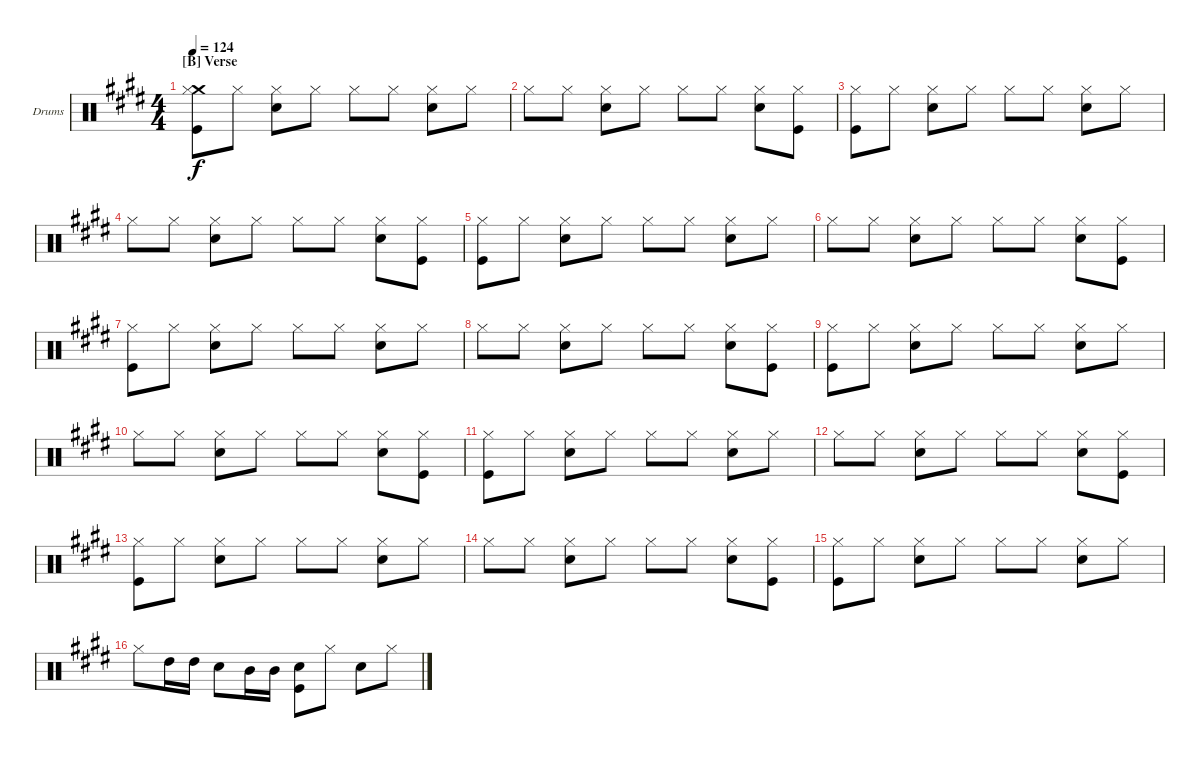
\defaultSystemsLayout 4
\bracketExtendMode groupsimilarinstruments
\firstSystemTrackNameOrientation horizontal
\otherSystemsTrackNameOrientation horizontal
\track ("Drumkit" "Drums") {instrument percussion}
\staff {score}
\articulation defaults
\ts (4 4)
\section ("B" "Verse")
\tempo 124
\clef neutral
\scale
1.06557
\ks e
("Crash medium (hit)" "Hi-Hat (closed)" "Kick (hit)").8{dy f} "Hi-Hat (closed)".8 ("Hi-Hat (closed)" "Snare (hit) 2").8 "Hi-Hat (closed)".8 "Hi-Hat (closed)".8 "Hi-Hat (closed)".8 ("Hi-Hat (closed)" "Snare (hit) 2").8 "Hi-Hat (closed)".8 |
\scale
0.934426 "Hi-Hat (closed)".8 "Hi-Hat (closed)".8 ("Hi-Hat (closed)" "Snare (hit) 2").8 "Hi-Hat (closed)".8 "Hi-Hat (closed)".8 "Hi-Hat (closed)".8 ("Hi-Hat (closed)" "Snare (hit) 2").8 ("Hi-Hat (closed)" "Kick (hit)").8 |
\scale
1.06557 ("Hi-Hat (closed)" "Kick (hit)").8 "Hi-Hat (closed)".8 ("Hi-Hat (closed)" "Snare (hit) 2").8 "Hi-Hat (closed)".8 "Hi-Hat (closed)".8 "Hi-Hat (closed)".8 ("Hi-Hat (closed)" "Snare (hit) 2").8 "Hi-Hat (closed)".8 |
\scale
0.934426 "Hi-Hat (closed)".8 "Hi-Hat (closed)".8 ("Hi-Hat (closed)" "Snare (hit) 2").8 "Hi-Hat (closed)".8 "Hi-Hat (closed)".8 "Hi-Hat (closed)".8 ("Hi-Hat (closed)" "Snare (hit) 2").8 ("Hi-Hat (closed)" "Kick (hit)").8 |
\scale
1.06557 ("Hi-Hat (closed)" "Kick (hit)").8 "Hi-Hat (closed)".8 ("Hi-Hat (closed)" "Snare (hit) 2").8 "Hi-Hat (closed)".8 "Hi-Hat (closed)".8 "Hi-Hat (closed)".8 ("Hi-Hat (closed)" "Snare (hit) 2").8 "Hi-Hat (closed)".8 |
\scale
0.934426 "Hi-Hat (closed)".8 "Hi-Hat (closed)".8 ("Hi-Hat (closed)" "Snare (hit) 2").8 "Hi-Hat (closed)".8 "Hi-Hat (closed)".8 "Hi-Hat (closed)".8 ("Hi-Hat (closed)" "Snare (hit) 2").8 ("Hi-Hat (closed)" "Kick (hit)").8 |
\scale
1.06557 ("Hi-Hat (closed)" "Kick (hit)").8 "Hi-Hat (closed)".8 ("Hi-Hat (closed)" "Snare (hit) 2").8 "Hi-Hat (closed)".8 "Hi-Hat (closed)".8 "Hi-Hat (closed)".8 ("Hi-Hat (closed)" "Snare (hit) 2").8 "Hi-Hat (closed)".8 |
\scale
0.934426 "Hi-Hat (closed)".8 "Hi-Hat (closed)".8 ("Hi-Hat (closed)" "Snare (hit) 2").8 "Hi-Hat (closed)".8 "Hi-Hat (closed)".8 "Hi-Hat (closed)".8 ("Hi-Hat (closed)" "Snare (hit) 2").8 ("Hi-Hat (closed)" "Kick (hit)").8 |
\scale
1.06557 ("Hi-Hat (closed)" "Kick (hit)").8 "Hi-Hat (closed)".8 ("Hi-Hat (closed)" "Snare (hit) 2").8 "Hi-Hat (closed)".8 "Hi-Hat (closed)".8 "Hi-Hat (closed)".8 ("Hi-Hat (closed)" "Snare (hit) 2").8 "Hi-Hat (closed)".8 |
\scale
0.934426 "Hi-Hat (closed)".8 "Hi-Hat (closed)".8 ("Hi-Hat (closed)" "Snare (hit) 2").8 "Hi-Hat (closed)".8 "Hi-Hat (closed)".8 "Hi-Hat (closed)".8 ("Hi-Hat (closed)" "Snare (hit) 2").8 ("Hi-Hat (closed)" "Kick (hit)").8 |
\scale
1.06557 ("Hi-Hat (closed)" "Kick (hit)").8 "Hi-Hat (closed)".8 ("Hi-Hat (closed)" "Snare (hit) 2").8 "Hi-Hat (closed)".8 "Hi-Hat (closed)".8 "Hi-Hat (closed)".8 ("Hi-Hat (closed)" "Snare (hit) 2").8 "Hi-Hat (closed)".8 |
\scale
0.934426 "Hi-Hat (closed)".8 "Hi-Hat (closed)".8 ("Hi-Hat (closed)" "Snare (hit) 2").8 "Hi-Hat (closed)".8 "Hi-Hat (closed)".8 "Hi-Hat (closed)".8 ("Hi-Hat (closed)" "Snare (hit) 2").8 ("Hi-Hat (closed)" "Kick (hit)").8 |
\scale
1.06557 ("Hi-Hat (closed)" "Kick (hit)").8 "Hi-Hat (closed)".8 ("Hi-Hat (closed)" "Snare (hit) 2").8 "Hi-Hat (closed)".8 "Hi-Hat (closed)".8 "Hi-Hat (closed)".8 ("Hi-Hat (closed)" "Snare (hit) 2").8 "Hi-Hat (closed)".8 |
\scale
0.934426 "Hi-Hat (closed)".8 "Hi-Hat (closed)".8 ("Hi-Hat (closed)" "Snare (hit) 2").8 "Hi-Hat (closed)".8 "Hi-Hat (closed)".8 "Hi-Hat (closed)".8 ("Hi-Hat (closed)" "Snare (hit) 2").8 ("Hi-Hat (closed)" "Kick (hit)").8 |
\scale
1.06557 ("Hi-Hat (closed)" "Kick (hit)").8 "Hi-Hat (closed)".8 ("Hi-Hat (closed)" "Snare (hit) 2").8 "Hi-Hat (closed)".8 "Hi-Hat (closed)".8 "Hi-Hat (closed)".8 ("Hi-Hat (closed)" "Snare (hit) 2").8 "Hi-Hat (closed)".8 |
\scale
0.934426 "Hi-Hat (closed)".8 "High Tom (hit)".16 "High Tom (hit)".16 "Snare (hit) 2".8 "Mid Tom (hit)".16 "Mid Tom (hit)".16 ("Snare (hit) 2" "Kick (hit)").8 "Hi-Hat (closed)".8 "Snare (hit) 2".8 "Hi-Hat (closed)".8
